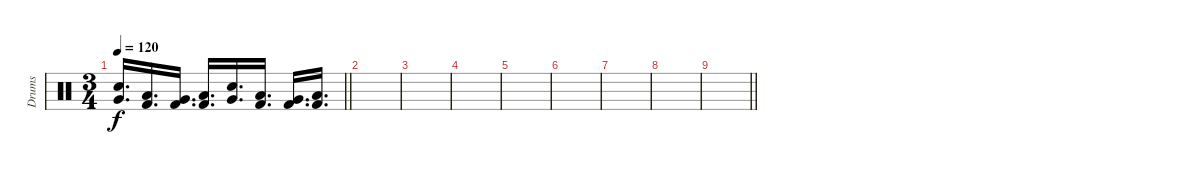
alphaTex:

\track ("Drums" "Drums") {instrument percussion}
\staff {score}
\articulation defaults
\ts (3 4)
\tempo 120
\clef neutral
\barLineRight lightlight
\ks c
("Electric Snare (hit)" "Very Low Tom (hit)").16{d dy f} ("Low Floor Tom (hit)" "Kick (hit) 2").16{d} ("Very Low Tom (hit)" "Kick (hit) 2").16{d} ("Low Floor Tom (hit)" "Kick (hit) 2").16{d} ("Electric Snare (hit)" "Very Low Tom (hit)").16{d} ("Low Floor Tom (hit)" "Kick (hit) 2").16{d} ("Very Low Tom (hit)" "Kick (hit) 2").16{d} ("Low Floor Tom (hit)" "Kick (hit) 2").16{d} |
|
|
|
|
|
|
|
\barLineRight lightlight
